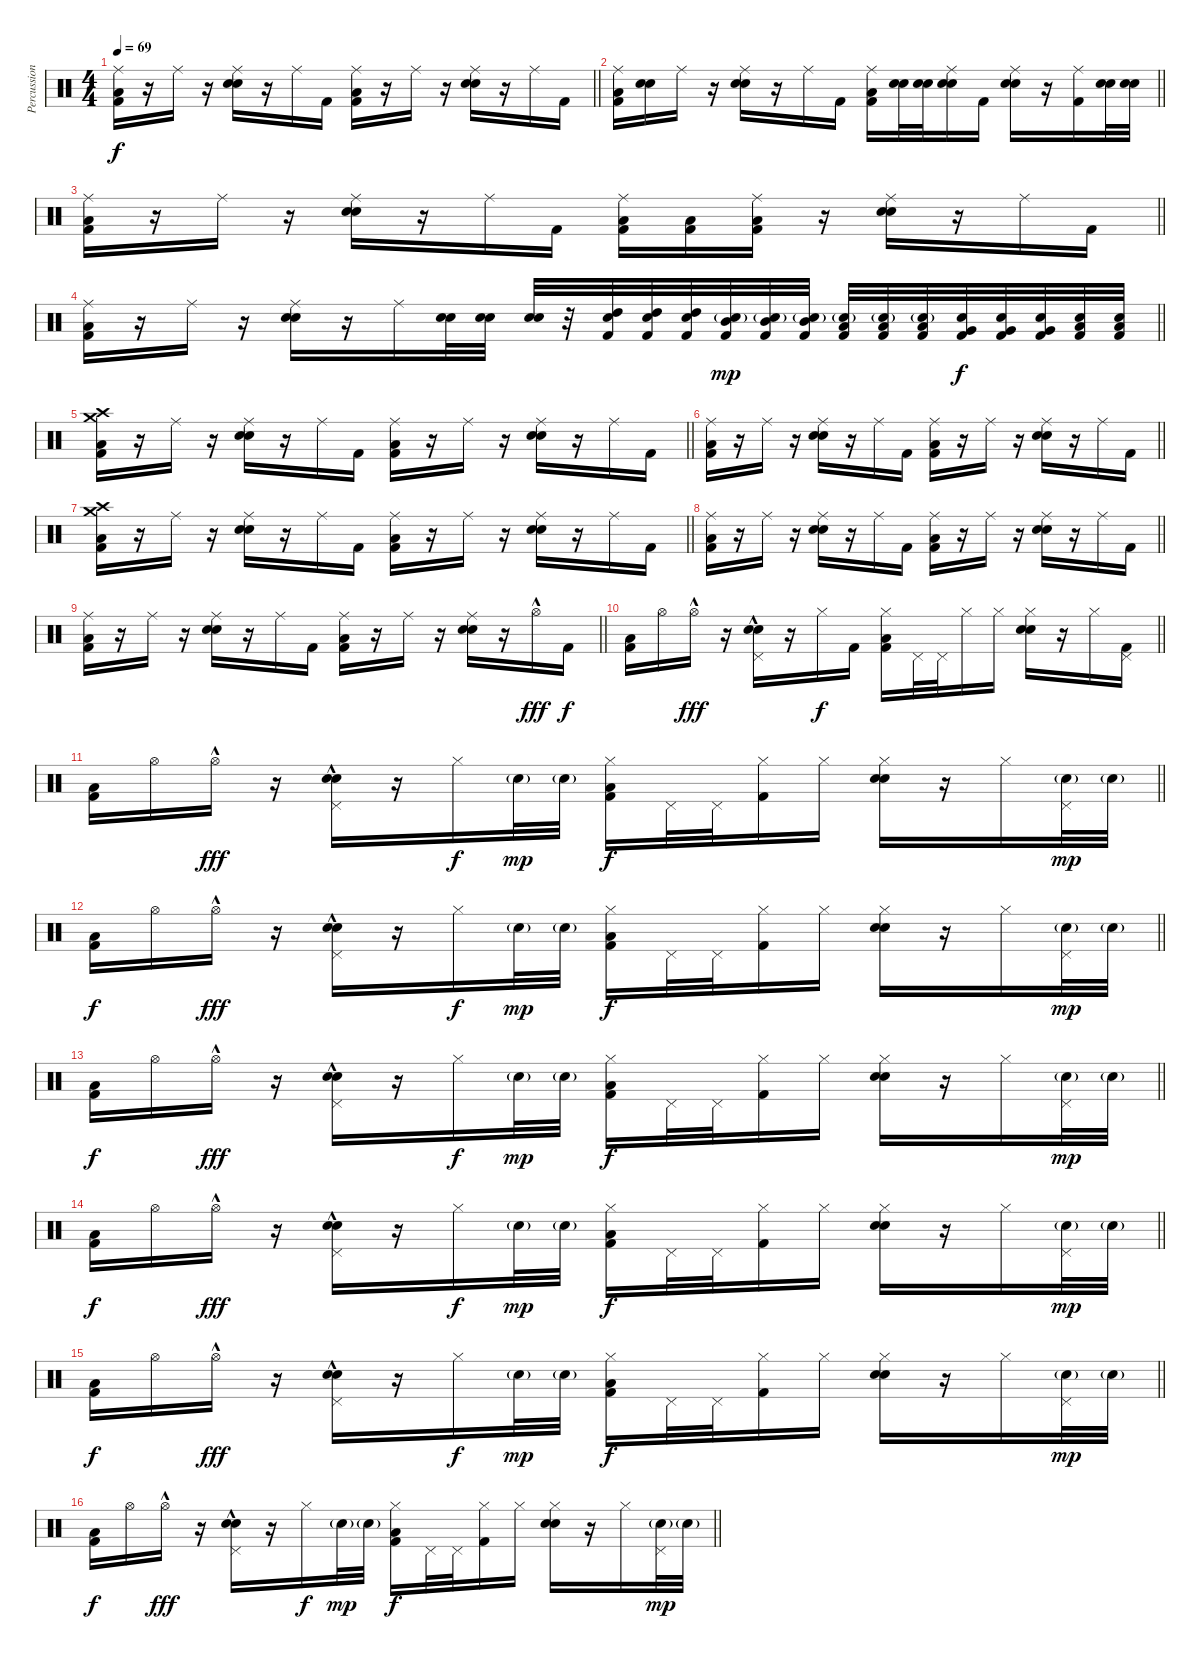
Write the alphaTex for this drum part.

\track ("Percussions" "Percussion") {instrument percussion}
\staff {score}
\articulation defaults
\ts (4 4)
\tempo 69
\clef neutral
\barLineRight lightlight
\ks c
("Ride (middle)" "Low Floor Tom (hit)" "Kick (hit) 2").16{dy f} r.16 "Ride (middle)".16 r.16 ("Ride (middle)" "Snare (hit) 2" "Electric Snare (hit)").16 r.16 "Ride (middle)".16 "Kick (hit) 2".16 ("Ride (middle)" "Low Floor Tom (hit)" "Kick (hit) 2").16 r.16 "Ride (middle)".16 r.16 ("Ride (middle)" "Snare (hit) 2" "Electric Snare (hit)").16 r.16 "Ride (middle)".16 "Kick (hit) 2".16 |
\barLineRight lightlight
("Ride (middle)" "Low Floor Tom (hit)" "Kick (hit) 2").16 ("Snare (hit) 2" "Electric Snare (hit)").16 "Ride (middle)".16 r.16 ("Ride (middle)" "Snare (hit) 2" "Electric Snare (hit)").16 r.16 "Ride (middle)".16 "Kick (hit) 2".16 ("Ride (middle)" "Low Floor Tom (hit)" "Kick (hit) 2").16 ("Snare (hit) 2" "Electric Snare (hit)").32 ("Snare (hit) 2" "Electric Snare (hit)").32 ("Ride (middle)" "Snare (hit) 2" "Electric Snare (hit)").16 "Kick (hit) 2".16 ("Ride (middle)" "Snare (hit) 2" "Electric Snare (hit)").16 r.16 ("Ride (middle)" "Kick (hit) 2").16 ("Snare (hit) 2" "Electric Snare (hit)").32 ("Snare (hit) 2" "Electric Snare (hit)").32 |
\barLineRight lightlight
("Ride (middle)" "Low Floor Tom (hit)" "Kick (hit) 2").16 r.16 "Ride (middle)".16 r.16 ("Ride (middle)" "Snare (hit) 2" "Electric Snare (hit)").16 r.16 "Ride (middle)".16 "Kick (hit) 2".16 ("Ride (middle)" "Low Floor Tom (hit)" "Kick (hit) 2").16 ("Low Floor Tom (hit)" "Kick (hit) 2").16 ("Ride (middle)" "Low Floor Tom (hit)" "Kick (hit) 2").16 r.16 ("Ride (middle)" "Snare (hit) 2" "Electric Snare (hit)").16 r.16 "Ride (middle)".16 "Kick (hit) 2".16 |
\barLineRight lightlight
("Ride (middle)" "Low Floor Tom (hit)" "Kick (hit) 2").16 r.16 "Ride (middle)".16 r.16 ("Ride (middle)" "Snare (hit) 2" "Electric Snare (hit)").16 r.16 "Ride (middle)".16 ("Snare (hit) 2" "Electric Snare (hit)").32 ("Snare (hit) 2" "Electric Snare (hit)").32 ("Snare (hit) 2" "Electric Snare (hit)").32 r.32 ("Snare (hit) 2" "High Tom (hit)" "Kick (hit) 2").32 ("Snare (hit) 2" "High Tom (hit)" "Kick (hit) 2").32 ("Snare (hit) 2" "High Tom (hit)" "Kick (hit) 2").32 ("Snare (hit) 2"{g} "Mid Tom (hit)" "Kick (hit) 2").32{dy mp} ("Snare (hit) 2"{g} "Mid Tom (hit)" "Kick (hit) 2").32 ("Snare (hit) 2"{g} "Mid Tom (hit)" "Kick (hit) 2").32 ("Electric Snare (hit)"{g} "Low Tom (hit)" "Kick (hit) 2").32 ("Electric Snare (hit)"{g} "Low Tom (hit)" "Kick (hit) 2").32 ("Electric Snare (hit)"{g} "Low Tom (hit)" "Kick (hit) 2").32 ("Electric Snare (hit)" "Very Low Tom (hit)" "Kick (hit) 2").32{dy f} ("Electric Snare (hit)" "Very Low Tom (hit)" "Kick (hit) 2").32 ("Electric Snare (hit)" "Very Low Tom (hit)" "Kick (hit) 2").32 ("Electric Snare (hit)" "Low Floor Tom (hit)" "Kick (hit) 2").32 ("Electric Snare (hit)" "Low Floor Tom (hit)" "Kick (hit) 2").32 |
\barLineRight lightlight
("Crash medium (hit)" "Crash high (hit)" "Low Floor Tom (hit)" "Kick (hit) 2").16 r.16 "Ride (middle)".16 r.16 ("Ride (middle)" "Snare (hit) 2" "Electric Snare (hit)").16 r.16 "Ride (middle)".16 "Kick (hit) 2".16 ("Ride (middle)" "Low Floor Tom (hit)" "Kick (hit) 2").16 r.16 "Ride (middle)".16 r.16 ("Ride (middle)" "Snare (hit) 2" "Electric Snare (hit)").16 r.16 "Ride (middle)".16 "Kick (hit) 2".16 |
\barLineRight lightlight
("Ride (middle)" "Low Floor Tom (hit)" "Kick (hit) 2").16 r.16 "Ride (middle)".16 r.16 ("Ride (middle)" "Snare (hit) 2" "Electric Snare (hit)").16 r.16 "Ride (middle)".16 "Kick (hit) 2".16 ("Ride (middle)" "Low Floor Tom (hit)" "Kick (hit) 2").16 r.16 "Ride (middle)".16 r.16 ("Ride (middle)" "Snare (hit) 2" "Electric Snare (hit)").16 r.16 "Ride (middle)".16 "Kick (hit) 2".16 |
\barLineRight lightlight
("Crash medium (hit)" "Crash high (hit)" "Low Floor Tom (hit)" "Kick (hit) 2").16 r.16 "Ride (middle)".16 r.16 ("Ride (middle)" "Snare (hit) 2" "Electric Snare (hit)").16 r.16 "Ride (middle)".16 "Kick (hit) 2".16 ("Ride (middle)" "Low Floor Tom (hit)" "Kick (hit) 2").16 r.16 "Ride (middle)".16 r.16 ("Ride (middle)" "Snare (hit) 2" "Electric Snare (hit)").16 r.16 "Ride (middle)".16 "Kick (hit) 2".16 |
\barLineRight lightlight
("Ride (middle)" "Low Floor Tom (hit)" "Kick (hit) 2").16 r.16 "Ride (middle)".16 r.16 ("Ride (middle)" "Snare (hit) 2" "Electric Snare (hit)").16 r.16 "Ride (middle)".16 "Kick (hit) 2".16 ("Ride (middle)" "Low Floor Tom (hit)" "Kick (hit) 2").16 r.16 "Ride (middle)".16 r.16 ("Ride (middle)" "Snare (hit) 2" "Electric Snare (hit)").16 r.16 "Ride (middle)".16 "Kick (hit) 2".16 |
\barLineRight lightlight
("Ride (middle)" "Low Floor Tom (hit)" "Kick (hit) 2").16 r.16 "Ride (middle)".16 r.16 ("Ride (middle)" "Snare (hit) 2" "Electric Snare (hit)").16 r.16 "Ride (middle)".16 "Kick (hit) 2".16 ("Ride (middle)" "Low Floor Tom (hit)" "Kick (hit) 2").16 r.16 "Ride (middle)".16 r.16 ("Ride (middle)" "Snare (hit) 2" "Electric Snare (hit)").16 r.16 "Hi-Hat (open)"{hac}.16{dy fff} "Kick (hit) 2".16{dy f} |
\barLineRight lightlight
("Low Floor Tom (hit)" "Kick (hit) 2").16 "Hi-Hat (open)".16 "Hi-Hat (open)"{hac}.16{dy fff} r.16 ("Pedal Hi-Hat (hit)"{hac} "Snare (hit) 2" "Electric Snare (hit)").16 r.16 "Hi-Hat (closed)".16{dy f} "Kick (hit) 2".16 ("Hi-Hat (closed)" "Low Floor Tom (hit)" "Kick (hit) 2").16 "Pedal Hi-Hat (hit)".32 "Pedal Hi-Hat (hit)".32 "Hi-Hat (closed)".16 "Hi-Hat (closed)".16 ("Hi-Hat (closed)" "Snare (hit) 2" "Electric Snare (hit)").16 r.16 "Hi-Hat (closed)".16 ("Pedal Hi-Hat (hit)" "Kick (hit) 2").16 |
\barLineRight lightlight
("Low Floor Tom (hit)" "Kick (hit) 2").16 "Hi-Hat (open)".16 "Hi-Hat (open)"{hac}.16{dy fff} r.16 ("Pedal Hi-Hat (hit)"{hac} "Snare (hit) 2" "Electric Snare (hit)").16 r.16 "Hi-Hat (closed)".16{dy f} "Snare (hit) 2"{g}.32{dy mp} "Snare (hit) 2"{g}.32 ("Hi-Hat (closed)" "Low Floor Tom (hit)" "Kick (hit) 2").16{dy f} "Pedal Hi-Hat (hit)".32 "Pedal Hi-Hat (hit)".32 ("Hi-Hat (closed)" "Kick (hit) 2").16 "Hi-Hat (closed)".16 ("Hi-Hat (closed)" "Snare (hit) 2" "Electric Snare (hit)").16 r.16 "Hi-Hat (closed)".16 ("Pedal Hi-Hat (hit)" "Snare (hit) 2"{g}).32{dy mp} "Snare (hit) 2"{g}.32 |
\barLineRight lightlight
("Low Floor Tom (hit)" "Kick (hit) 2").16{dy f} "Hi-Hat (open)".16 "Hi-Hat (open)"{hac}.16{dy fff} r.16 ("Pedal Hi-Hat (hit)"{hac} "Snare (hit) 2" "Electric Snare (hit)").16 r.16 "Hi-Hat (closed)".16{dy f} "Snare (hit) 2"{g}.32{dy mp} "Snare (hit) 2"{g}.32 ("Hi-Hat (closed)" "Low Floor Tom (hit)" "Kick (hit) 2").16{dy f} "Pedal Hi-Hat (hit)".32 "Pedal Hi-Hat (hit)".32 ("Hi-Hat (closed)" "Kick (hit) 2").16 "Hi-Hat (closed)".16 ("Hi-Hat (closed)" "Snare (hit) 2" "Electric Snare (hit)").16 r.16 "Hi-Hat (closed)".16 ("Pedal Hi-Hat (hit)" "Snare (hit) 2"{g}).32{dy mp} "Snare (hit) 2"{g}.32 |
\barLineRight lightlight
("Low Floor Tom (hit)" "Kick (hit) 2").16{dy f} "Hi-Hat (open)".16 "Hi-Hat (open)"{hac}.16{dy fff} r.16 ("Pedal Hi-Hat (hit)"{hac} "Snare (hit) 2" "Electric Snare (hit)").16 r.16 "Hi-Hat (closed)".16{dy f} "Snare (hit) 2"{g}.32{dy mp} "Snare (hit) 2"{g}.32 ("Hi-Hat (closed)" "Low Floor Tom (hit)" "Kick (hit) 2").16{dy f} "Pedal Hi-Hat (hit)".32 "Pedal Hi-Hat (hit)".32 ("Hi-Hat (closed)" "Kick (hit) 2").16 "Hi-Hat (closed)".16 ("Hi-Hat (closed)" "Snare (hit) 2" "Electric Snare (hit)").16 r.16 "Hi-Hat (closed)".16 ("Pedal Hi-Hat (hit)" "Snare (hit) 2"{g}).32{dy mp} "Snare (hit) 2"{g}.32 |
\barLineRight lightlight
("Low Floor Tom (hit)" "Kick (hit) 2").16{dy f} "Hi-Hat (open)".16 "Hi-Hat (open)"{hac}.16{dy fff} r.16 ("Pedal Hi-Hat (hit)"{hac} "Snare (hit) 2" "Electric Snare (hit)").16 r.16 "Hi-Hat (closed)".16{dy f} "Snare (hit) 2"{g}.32{dy mp} "Snare (hit) 2"{g}.32 ("Hi-Hat (closed)" "Low Floor Tom (hit)" "Kick (hit) 2").16{dy f} "Pedal Hi-Hat (hit)".32 "Pedal Hi-Hat (hit)".32 ("Hi-Hat (closed)" "Kick (hit) 2").16 "Hi-Hat (closed)".16 ("Hi-Hat (closed)" "Snare (hit) 2" "Electric Snare (hit)").16 r.16 "Hi-Hat (closed)".16 ("Pedal Hi-Hat (hit)" "Snare (hit) 2"{g}).32{dy mp} "Snare (hit) 2"{g}.32 |
\barLineRight lightlight
("Low Floor Tom (hit)" "Kick (hit) 2").16{dy f} "Hi-Hat (open)".16 "Hi-Hat (open)"{hac}.16{dy fff} r.16 ("Pedal Hi-Hat (hit)"{hac} "Snare (hit) 2" "Electric Snare (hit)").16 r.16 "Hi-Hat (closed)".16{dy f} "Snare (hit) 2"{g}.32{dy mp} "Snare (hit) 2"{g}.32 ("Hi-Hat (closed)" "Low Floor Tom (hit)" "Kick (hit) 2").16{dy f} "Pedal Hi-Hat (hit)".32 "Pedal Hi-Hat (hit)".32 ("Hi-Hat (closed)" "Kick (hit) 2").16 "Hi-Hat (closed)".16 ("Hi-Hat (closed)" "Snare (hit) 2" "Electric Snare (hit)").16 r.16 "Hi-Hat (closed)".16 ("Pedal Hi-Hat (hit)" "Snare (hit) 2"{g}).32{dy mp} "Snare (hit) 2"{g}.32 |
\barLineRight lightlight
("Low Floor Tom (hit)" "Kick (hit) 2").16{dy f} "Hi-Hat (open)".16 "Hi-Hat (open)"{hac}.16{dy fff} r.16 ("Pedal Hi-Hat (hit)"{hac} "Snare (hit) 2" "Electric Snare (hit)").16 r.16 "Hi-Hat (closed)".16{dy f} "Snare (hit) 2"{g}.32{dy mp} "Snare (hit) 2"{g}.32 ("Hi-Hat (closed)" "Low Floor Tom (hit)" "Kick (hit) 2").16{dy f} "Pedal Hi-Hat (hit)".32 "Pedal Hi-Hat (hit)".32 ("Hi-Hat (closed)" "Kick (hit) 2").16 "Hi-Hat (closed)".16 ("Hi-Hat (closed)" "Snare (hit) 2" "Electric Snare (hit)").16 r.16 "Hi-Hat (closed)".16 ("Pedal Hi-Hat (hit)" "Snare (hit) 2"{g}).32{dy mp} "Snare (hit) 2"{g}.32
